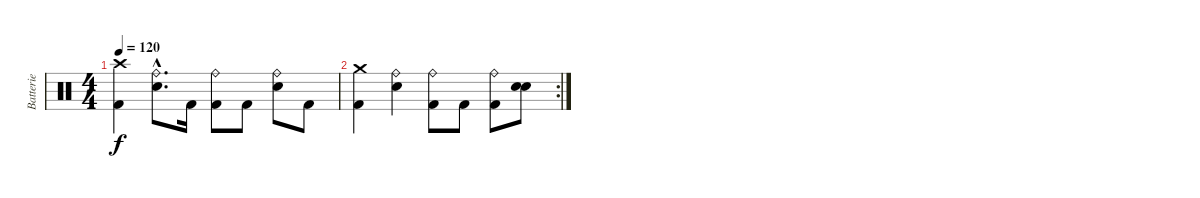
\track ("Batterie" "Batterie") {instrument percussion}
\staff {score}
\articulation defaults
\ts (4 4)
\tempo 120
\clef neutral
\ks c
("Crash high (hit)" "Kick (hit) 2").4{dy f} ("Ride (bell)"{hac} "Snare (hit) 2"{hac}).8{d} "Kick (hit) 2".16 ("Ride (bell)" "Kick (hit) 2").8 "Kick (hit) 2".8 ("Ride (bell)" "Snare (hit) 2").8 "Kick (hit) 2".8 |
\rc 2
("Crash medium (hit)" "Kick (hit) 2").4 ("Ride (bell)" "Snare (hit) 2").4 ("Ride (bell)" "Kick (hit) 2").8 "Kick (hit) 2".8 ("Ride (bell)" "Kick (hit) 2").8 ("Snare (hit) 2" "Snare (hit) 2").8{bd 120}
